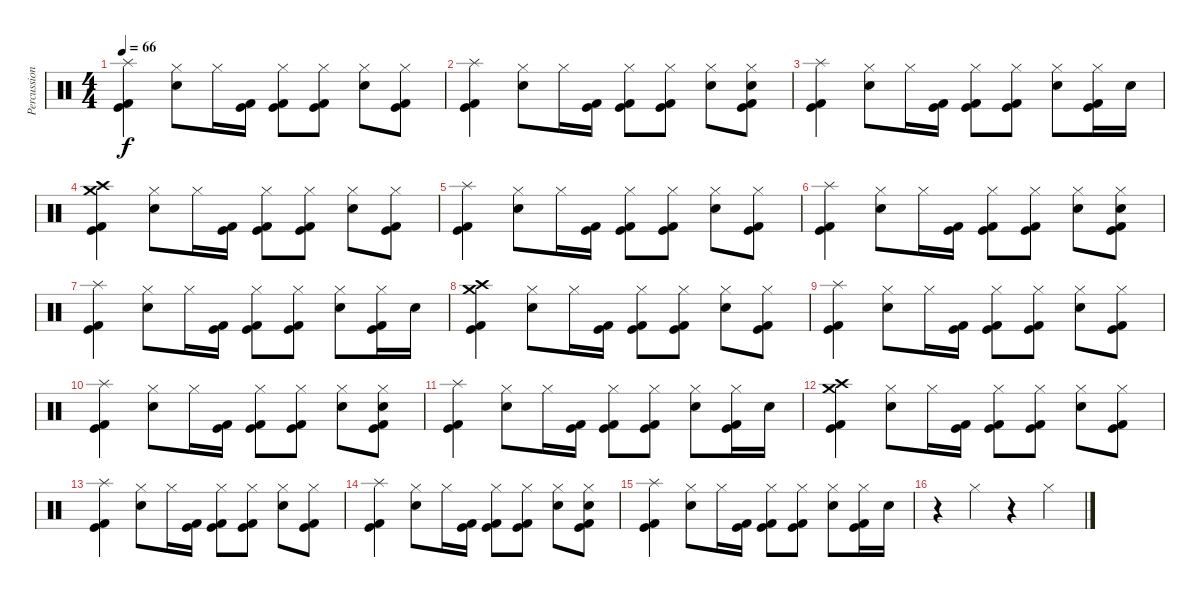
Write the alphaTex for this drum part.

\track ("Percussion" "Percussion") {instrument percussion}
\staff {score}
\articulation defaults
\ts (4 4)
\tempo 66
\clef neutral
\ks c
("Splash (hit)" "Kick (hit) 2" "Kick (hit)").4{dy f} ("Hi-Hat (closed)" "Electric Snare (hit)").8 "Hi-Hat (closed)".16 ("Kick (hit) 2" "Kick (hit)").16 ("Hi-Hat (closed)" "Kick (hit) 2" "Kick (hit)").8 ("Hi-Hat (closed)" "Kick (hit)" "Kick (hit) 2").8 ("Hi-Hat (closed)" "Electric Snare (hit)").8 ("Hi-Hat (closed)" "Kick (hit) 2" "Kick (hit)").8 |
("Splash (hit)" "Kick (hit) 2" "Kick (hit)").4 ("Hi-Hat (closed)" "Electric Snare (hit)").8 "Hi-Hat (closed)".16 ("Kick (hit) 2" "Kick (hit)").16 ("Hi-Hat (closed)" "Kick (hit) 2" "Kick (hit)").8 ("Hi-Hat (closed)" "Kick (hit)" "Kick (hit) 2").8 ("Hi-Hat (closed)" "Electric Snare (hit)").8 ("Hi-Hat (closed)" "Electric Snare (hit)" "Kick (hit) 2" "Kick (hit)").8 |
("Splash (hit)" "Kick (hit) 2" "Kick (hit)").4 ("Hi-Hat (closed)" "Electric Snare (hit)").8 "Hi-Hat (closed)".16 ("Kick (hit) 2" "Kick (hit)").16 ("Hi-Hat (closed)" "Kick (hit) 2" "Kick (hit)").8 ("Hi-Hat (closed)" "Kick (hit)" "Kick (hit) 2").8 ("Hi-Hat (closed)" "Electric Snare (hit)").8 ("Hi-Hat (closed)" "Kick (hit) 2" "Kick (hit)").16 "Electric Snare (hit)".16 |
("Crash medium (hit)" "Crash high (hit)" "Kick (hit) 2" "Kick (hit)").4 ("Hi-Hat (closed)" "Electric Snare (hit)").8 "Hi-Hat (closed)".16 ("Kick (hit) 2" "Kick (hit)").16 ("Hi-Hat (closed)" "Kick (hit) 2" "Kick (hit)").8 ("Hi-Hat (closed)" "Kick (hit)" "Kick (hit) 2").8 ("Hi-Hat (closed)" "Electric Snare (hit)").8 ("Hi-Hat (closed)" "Kick (hit) 2" "Kick (hit)").8 |
("Splash (hit)" "Kick (hit) 2" "Kick (hit)").4 ("Hi-Hat (closed)" "Electric Snare (hit)").8 "Hi-Hat (closed)".16 ("Kick (hit) 2" "Kick (hit)").16 ("Hi-Hat (closed)" "Kick (hit) 2" "Kick (hit)").8 ("Hi-Hat (closed)" "Kick (hit)" "Kick (hit) 2").8 ("Hi-Hat (closed)" "Electric Snare (hit)").8 ("Hi-Hat (closed)" "Kick (hit) 2" "Kick (hit)").8 |
("Splash (hit)" "Kick (hit) 2" "Kick (hit)").4 ("Hi-Hat (closed)" "Electric Snare (hit)").8 "Hi-Hat (closed)".16 ("Kick (hit) 2" "Kick (hit)").16 ("Hi-Hat (closed)" "Kick (hit) 2" "Kick (hit)").8 ("Hi-Hat (closed)" "Kick (hit)" "Kick (hit) 2").8 ("Hi-Hat (closed)" "Electric Snare (hit)").8 ("Hi-Hat (closed)" "Electric Snare (hit)" "Kick (hit) 2" "Kick (hit)").8 |
("Splash (hit)" "Kick (hit) 2" "Kick (hit)").4 ("Hi-Hat (closed)" "Electric Snare (hit)").8 "Hi-Hat (closed)".16 ("Kick (hit) 2" "Kick (hit)").16 ("Hi-Hat (closed)" "Kick (hit) 2" "Kick (hit)").8 ("Hi-Hat (closed)" "Kick (hit)" "Kick (hit) 2").8 ("Hi-Hat (closed)" "Electric Snare (hit)").8 ("Hi-Hat (closed)" "Kick (hit) 2" "Kick (hit)").16 "Electric Snare (hit)".16 |
("Crash medium (hit)" "Crash high (hit)" "Kick (hit) 2" "Kick (hit)").4 ("Hi-Hat (closed)" "Electric Snare (hit)").8 "Hi-Hat (closed)".16 ("Kick (hit) 2" "Kick (hit)").16 ("Hi-Hat (closed)" "Kick (hit) 2" "Kick (hit)").8 ("Hi-Hat (closed)" "Kick (hit)" "Kick (hit) 2").8 ("Hi-Hat (closed)" "Electric Snare (hit)").8 ("Hi-Hat (closed)" "Kick (hit) 2" "Kick (hit)").8 |
("Splash (hit)" "Kick (hit) 2" "Kick (hit)").4 ("Hi-Hat (closed)" "Electric Snare (hit)").8 "Hi-Hat (closed)".16 ("Kick (hit) 2" "Kick (hit)").16 ("Hi-Hat (closed)" "Kick (hit) 2" "Kick (hit)").8 ("Hi-Hat (closed)" "Kick (hit)" "Kick (hit) 2").8 ("Hi-Hat (closed)" "Electric Snare (hit)").8 ("Hi-Hat (closed)" "Kick (hit) 2" "Kick (hit)").8 |
("Splash (hit)" "Kick (hit) 2" "Kick (hit)").4 ("Hi-Hat (closed)" "Electric Snare (hit)").8 "Hi-Hat (closed)".16 ("Kick (hit) 2" "Kick (hit)").16 ("Hi-Hat (closed)" "Kick (hit) 2" "Kick (hit)").8 ("Hi-Hat (closed)" "Kick (hit)" "Kick (hit) 2").8 ("Hi-Hat (closed)" "Electric Snare (hit)").8 ("Hi-Hat (closed)" "Electric Snare (hit)" "Kick (hit) 2" "Kick (hit)").8 |
("Splash (hit)" "Kick (hit) 2" "Kick (hit)").4 ("Hi-Hat (closed)" "Electric Snare (hit)").8 "Hi-Hat (closed)".16 ("Kick (hit) 2" "Kick (hit)").16 ("Hi-Hat (closed)" "Kick (hit) 2" "Kick (hit)").8 ("Hi-Hat (closed)" "Kick (hit)" "Kick (hit) 2").8 ("Hi-Hat (closed)" "Electric Snare (hit)").8 ("Hi-Hat (closed)" "Kick (hit) 2" "Kick (hit)").16 "Electric Snare (hit)".16 |
("Crash medium (hit)" "Crash high (hit)" "Kick (hit) 2" "Kick (hit)").4 ("Hi-Hat (closed)" "Electric Snare (hit)").8 "Hi-Hat (closed)".16 ("Kick (hit) 2" "Kick (hit)").16 ("Hi-Hat (closed)" "Kick (hit) 2" "Kick (hit)").8 ("Hi-Hat (closed)" "Kick (hit)" "Kick (hit) 2").8 ("Hi-Hat (closed)" "Electric Snare (hit)").8 ("Hi-Hat (closed)" "Kick (hit) 2" "Kick (hit)").8 |
("Splash (hit)" "Kick (hit) 2" "Kick (hit)").4 ("Hi-Hat (closed)" "Electric Snare (hit)").8 "Hi-Hat (closed)".16 ("Kick (hit) 2" "Kick (hit)").16 ("Hi-Hat (closed)" "Kick (hit) 2" "Kick (hit)").8 ("Hi-Hat (closed)" "Kick (hit)" "Kick (hit) 2").8 ("Hi-Hat (closed)" "Electric Snare (hit)").8 ("Hi-Hat (closed)" "Kick (hit) 2" "Kick (hit)").8 |
("Splash (hit)" "Kick (hit) 2" "Kick (hit)").4 ("Hi-Hat (closed)" "Electric Snare (hit)").8 "Hi-Hat (closed)".16 ("Kick (hit) 2" "Kick (hit)").16 ("Hi-Hat (closed)" "Kick (hit) 2" "Kick (hit)").8 ("Hi-Hat (closed)" "Kick (hit)" "Kick (hit) 2").8 ("Hi-Hat (closed)" "Electric Snare (hit)").8 ("Hi-Hat (closed)" "Electric Snare (hit)" "Kick (hit) 2" "Kick (hit)").8 |
("Splash (hit)" "Kick (hit) 2" "Kick (hit)").4 ("Hi-Hat (closed)" "Electric Snare (hit)").8 "Hi-Hat (closed)".16 ("Kick (hit) 2" "Kick (hit)").16 ("Hi-Hat (closed)" "Kick (hit) 2" "Kick (hit)").8 ("Hi-Hat (closed)" "Kick (hit)" "Kick (hit) 2").8 ("Hi-Hat (closed)" "Electric Snare (hit)").8 ("Hi-Hat (closed)" "Kick (hit) 2" "Kick (hit)").16 "Electric Snare (hit)".16 |
r.4 "Hi-Hat (closed)".4 r.4 "Hi-Hat (closed)".4
